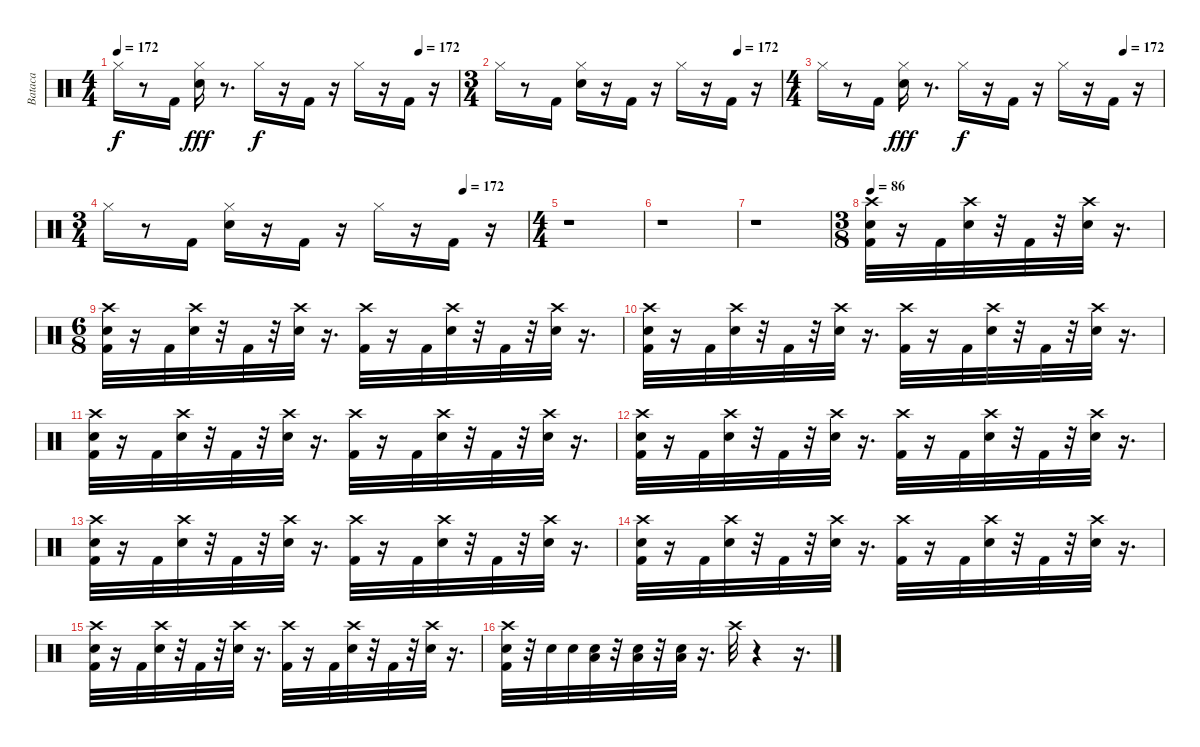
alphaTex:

\track ("Bataca" "Bataca") {instrument percussion}
\staff {score}
\articulation defaults
\ts (4 4)
\tempo 172
\tempo (172 0.8854166666666666)
\clef neutral
\ks c "Hi-Hat (closed)".16{dy f}
r.8 "Kick (hit) 2".16 ("Hi-Hat (closed)" "Snare (hit) 2").16{dy fff} r.8{d} "Hi-Hat (closed)".16{dy f} r.16 "Kick (hit) 2".16 r.16 "Hi-Hat (closed)".16 r.16 "Kick (hit) 2".16 r.16 |
\ts (3 4)
\tempo (172 0.8472222222222222)
"Hi-Hat (closed)".16 r.8 "Kick (hit) 2".16 ("Hi-Hat (closed)" "Snare (hit) 2").16 r.16 "Kick (hit) 2".16 r.16 "Hi-Hat (closed)".16 r.16 "Kick (hit) 2".16 r.16 |
\ts (4 4)
\tempo (172 0.8854166666666666)
"Hi-Hat (closed)".16 r.8 "Kick (hit) 2".16 ("Hi-Hat (closed)" "Snare (hit) 2").16{dy fff} r.8{d} "Hi-Hat (closed)".16{dy f} r.16 "Kick (hit) 2".16 r.16 "Hi-Hat (closed)".16 r.16 "Kick (hit) 2".16 r.16 |
\ts (3 4)
\tempo (172 0.8472222222222222)
"Hi-Hat (closed)".16 r.8 "Kick (hit) 2".16 ("Hi-Hat (closed)" "Snare (hit) 2").16 r.16 "Kick (hit) 2".16 r.16 "Hi-Hat (closed)".16 r.16 "Kick (hit) 2".16 r.16 |
\ts (4 4)
r.1 |
r.1 |
r.1 |
\ts (3 8)
\tempo 86
("Crash high (hit)" "Snare (hit) 2" "Kick (hit) 2").32 r.16 "Kick (hit) 2".32 ("Crash high (hit)" "Snare (hit) 2").32 r.32 "Kick (hit) 2".32 r.32 ("Crash high (hit)" "Snare (hit) 2").32 r.16{d} |
\ts (6 8)
("Crash high (hit)" "Snare (hit) 2" "Kick (hit) 2").32 r.16 "Kick (hit) 2".32 ("Crash high (hit)" "Snare (hit) 2").32 r.32 "Kick (hit) 2".32 r.32 ("Crash high (hit)" "Snare (hit) 2").32 r.16{d} ("Crash high (hit)" "Kick (hit) 2").32 r.16 "Kick (hit) 2".32 ("Crash high (hit)" "Snare (hit) 2").32 r.32 "Kick (hit) 2".32 r.32 ("Crash high (hit)" "Snare (hit) 2").32 r.16{d} |
("Crash high (hit)" "Snare (hit) 2" "Kick (hit) 2").32 r.16 "Kick (hit) 2".32 ("Crash high (hit)" "Snare (hit) 2").32 r.32 "Kick (hit) 2".32 r.32 ("Crash high (hit)" "Snare (hit) 2").32 r.16{d} ("Crash high (hit)" "Kick (hit) 2").32 r.16 "Kick (hit) 2".32 ("Crash high (hit)" "Snare (hit) 2").32 r.32 "Kick (hit) 2".32 r.32 ("Crash high (hit)" "Snare (hit) 2").32 r.16{d} |
("Crash high (hit)" "Snare (hit) 2" "Kick (hit) 2").32 r.16 "Kick (hit) 2".32 ("Crash high (hit)" "Snare (hit) 2").32 r.32 "Kick (hit) 2".32 r.32 ("Crash high (hit)" "Snare (hit) 2").32 r.16{d} ("Crash high (hit)" "Kick (hit) 2").32 r.16 "Kick (hit) 2".32 ("Crash high (hit)" "Snare (hit) 2").32 r.32 "Kick (hit) 2".32 r.32 ("Crash high (hit)" "Snare (hit) 2").32 r.16{d} |
("Crash high (hit)" "Snare (hit) 2" "Kick (hit) 2").32 r.16 "Kick (hit) 2".32 ("Crash high (hit)" "Snare (hit) 2").32 r.32 "Kick (hit) 2".32 r.32 ("Crash high (hit)" "Snare (hit) 2").32 r.16{d} ("Crash high (hit)" "Kick (hit) 2").32 r.16 "Kick (hit) 2".32 ("Crash high (hit)" "Snare (hit) 2").32 r.32 "Kick (hit) 2".32 r.32 ("Crash high (hit)" "Snare (hit) 2").32 r.16{d} |
("Crash high (hit)" "Snare (hit) 2" "Kick (hit) 2").32 r.16 "Kick (hit) 2".32 ("Crash high (hit)" "Snare (hit) 2").32 r.32 "Kick (hit) 2".32 r.32 ("Crash high (hit)" "Snare (hit) 2").32 r.16{d} ("Crash high (hit)" "Kick (hit) 2").32 r.16 "Kick (hit) 2".32 ("Crash high (hit)" "Snare (hit) 2").32 r.32 "Kick (hit) 2".32 r.32 ("Crash high (hit)" "Snare (hit) 2").32 r.16{d} |
("Crash high (hit)" "Snare (hit) 2" "Kick (hit) 2").32 r.16 "Kick (hit) 2".32 ("Crash high (hit)" "Snare (hit) 2").32 r.32 "Kick (hit) 2".32 r.32 ("Crash high (hit)" "Snare (hit) 2").32 r.16{d} ("Crash high (hit)" "Kick (hit) 2").32 r.16 "Kick (hit) 2".32 ("Crash high (hit)" "Snare (hit) 2").32 r.32 "Kick (hit) 2".32 r.32 ("Crash high (hit)" "Snare (hit) 2").32 r.16{d} |
("Crash high (hit)" "Snare (hit) 2" "Kick (hit) 2").32 r.16 "Kick (hit) 2".32 ("Crash high (hit)" "Snare (hit) 2").32 r.32 "Kick (hit) 2".32 r.32 ("Crash high (hit)" "Snare (hit) 2").32 r.16{d} ("Crash high (hit)" "Kick (hit) 2").32 r.16 "Kick (hit) 2".32 ("Crash high (hit)" "Snare (hit) 2").32 r.32 "Kick (hit) 2".32 r.32 ("Crash high (hit)" "Snare (hit) 2").32 r.16{d} |
("Crash high (hit)" "Snare (hit) 2" "Kick (hit) 2").32 r.32 "Snare (hit) 2".32 "Snare (hit) 2".32 ("Snare (hit) 2" "Low Floor Tom (hit)").32 r.32 ("Snare (hit) 2" "Low Floor Tom (hit)").32 r.32 ("Snare (hit) 2" "Low Floor Tom (hit)").32 r.16{d} "Crash high (hit)".32 r.4 r.16{d}
